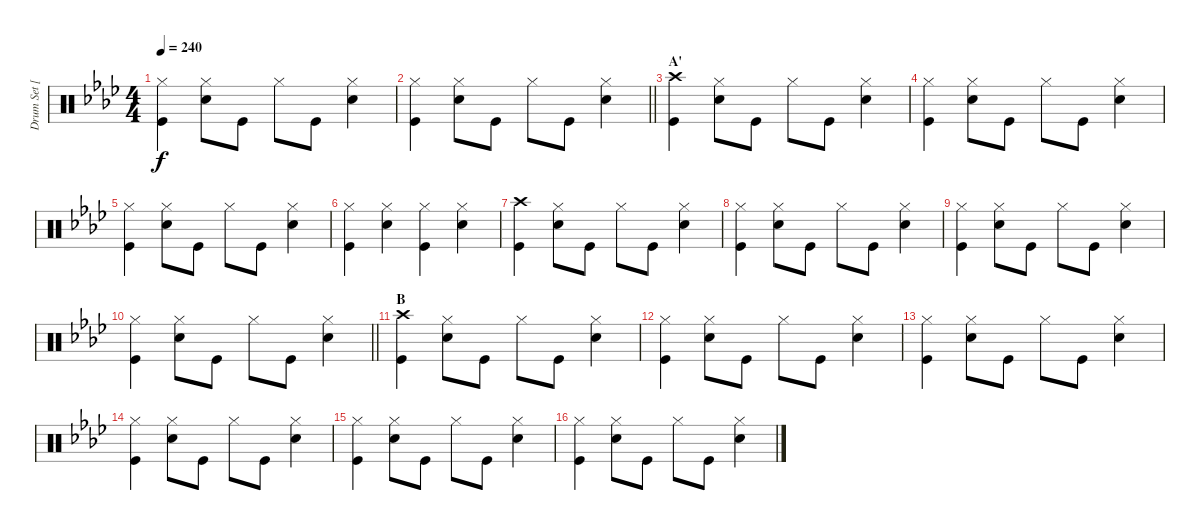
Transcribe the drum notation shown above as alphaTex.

\track ("Drum Set [Ritsu]" "Drum Set [") {instrument percussion}
\staff {score}
\articulation defaults
\ts (4 4)
\tempo 240
\clef neutral
\ks ab
("Hi-Hat (closed)" "Kick (hit)").4{dy f} ("Hi-Hat (closed)" "Snare (hit) 2").8 "Kick (hit)".8 "Hi-Hat (closed)".8 "Kick (hit)".8 ("Hi-Hat (closed)" "Snare (hit) 2").4 |
\barLineRight lightlight
("Hi-Hat (closed)" "Kick (hit)").4 ("Hi-Hat (closed)" "Snare (hit) 2").8 "Kick (hit)".8 "Hi-Hat (closed)".8 "Kick (hit)".8 ("Hi-Hat (closed)" "Snare (hit) 2").4 |
\section ("" "A'")
("Crash high (hit)" "Kick (hit)").4 ("Hi-Hat (closed)" "Snare (hit) 2").8 "Kick (hit)".8 "Hi-Hat (closed)".8 "Kick (hit)".8 ("Hi-Hat (closed)" "Snare (hit) 2").4 |
("Hi-Hat (closed)" "Kick (hit)").4 ("Hi-Hat (closed)" "Snare (hit) 2").8 "Kick (hit)".8 "Hi-Hat (closed)".8 "Kick (hit)".8 ("Hi-Hat (closed)" "Snare (hit) 2").4 |
("Hi-Hat (closed)" "Kick (hit)").4 ("Hi-Hat (closed)" "Snare (hit) 2").8 "Kick (hit)".8 "Hi-Hat (closed)".8 "Kick (hit)".8 ("Hi-Hat (closed)" "Snare (hit) 2").4 |
("Hi-Hat (closed)" "Kick (hit)").4 ("Hi-Hat (closed)" "Snare (hit) 2").4 ("Hi-Hat (closed)" "Kick (hit)").4 ("Hi-Hat (closed)" "Snare (hit) 2").4 |
("Crash high (hit)" "Kick (hit)").4 ("Hi-Hat (closed)" "Snare (hit) 2").8 "Kick (hit)".8 "Hi-Hat (closed)".8 "Kick (hit)".8 ("Hi-Hat (closed)" "Snare (hit) 2").4 |
("Hi-Hat (closed)" "Kick (hit)").4 ("Hi-Hat (closed)" "Snare (hit) 2").8 "Kick (hit)".8 "Hi-Hat (closed)".8 "Kick (hit)".8 ("Hi-Hat (closed)" "Snare (hit) 2").4 |
("Hi-Hat (closed)" "Kick (hit)").4 ("Hi-Hat (closed)" "Snare (hit) 2").8 "Kick (hit)".8 "Hi-Hat (closed)".8 "Kick (hit)".8 ("Hi-Hat (closed)" "Snare (hit) 2").4 |
\barLineRight lightlight
("Hi-Hat (closed)" "Kick (hit)").4 ("Hi-Hat (closed)" "Snare (hit) 2").8 "Kick (hit)".8 "Hi-Hat (closed)".8 "Kick (hit)".8 ("Hi-Hat (closed)" "Snare (hit) 2").4 |
\section ("" "B")
("Crash high (hit)" "Kick (hit)").4 ("Hi-Hat (closed)" "Snare (hit) 2").8 "Kick (hit)".8 "Hi-Hat (closed)".8 "Kick (hit)".8 ("Hi-Hat (closed)" "Snare (hit) 2").4 |
("Hi-Hat (closed)" "Kick (hit)").4 ("Hi-Hat (closed)" "Snare (hit) 2").8 "Kick (hit)".8 "Hi-Hat (closed)".8 "Kick (hit)".8 ("Hi-Hat (closed)" "Snare (hit) 2").4 |
("Hi-Hat (closed)" "Kick (hit)").4 ("Hi-Hat (closed)" "Snare (hit) 2").8 "Kick (hit)".8 "Hi-Hat (closed)".8 "Kick (hit)".8 ("Hi-Hat (closed)" "Snare (hit) 2").4 |
("Hi-Hat (closed)" "Kick (hit)").4 ("Hi-Hat (closed)" "Snare (hit) 2").8 "Kick (hit)".8 "Hi-Hat (closed)".8 "Kick (hit)".8 ("Hi-Hat (closed)" "Snare (hit) 2").4 |
("Hi-Hat (closed)" "Kick (hit)").4 ("Hi-Hat (closed)" "Snare (hit) 2").8 "Kick (hit)".8 "Hi-Hat (closed)".8 "Kick (hit)".8 ("Hi-Hat (closed)" "Snare (hit) 2").4 |
("Hi-Hat (closed)" "Kick (hit)").4 ("Hi-Hat (closed)" "Snare (hit) 2").8 "Kick (hit)".8 "Hi-Hat (closed)".8 "Kick (hit)".8 ("Hi-Hat (closed)" "Snare (hit) 2").4
